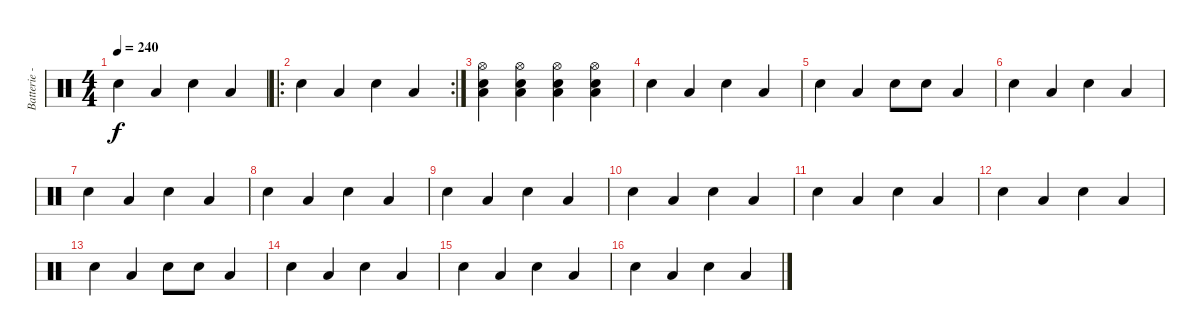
\track ("Batterie - Guillaume" "Batterie -") {instrument percussion}
\staff {score}
\articulation defaults
\ts (4 4)
\tempo 240
\clef neutral
\ks c "Electric Snare (hit)".4{dy f} "Low Tom (hit)".4 "Electric Snare (hit)".4 "Low Tom (hit)".4
|
\ro
\rc 2 "Electric Snare (hit)".4 "Low Tom (hit)".4 "Electric Snare (hit)".4 "Low Tom (hit)".4
|
("Hi-Hat (open)" "Low Tom (hit)" "Electric Snare (hit)").4 ("Hi-Hat (open)" "Low Tom (hit)" "Electric Snare (hit)").4 ("Hi-Hat (open)" "Low Tom (hit)" "Electric Snare (hit)").4 ("Hi-Hat (open)" "Low Tom (hit)" "Electric Snare (hit)").4 |
"Electric Snare (hit)".4 "Low Tom (hit)".4 "Electric Snare (hit)".4 "Low Tom (hit)".4 |
"Electric Snare (hit)".4 "Low Tom (hit)".4 "Electric Snare (hit)".8 "Electric Snare (hit)".8 "Low Tom (hit)".4 |
"Electric Snare (hit)".4 "Low Tom (hit)".4 "Electric Snare (hit)".4 "Low Tom (hit)".4 |
"Electric Snare (hit)".4 "Low Tom (hit)".4 "Electric Snare (hit)".4 "Low Tom (hit)".4 |
"Electric Snare (hit)".4 "Low Tom (hit)".4 "Electric Snare (hit)".4 "Low Tom (hit)".4 |
"Electric Snare (hit)".4 "Low Tom (hit)".4 "Electric Snare (hit)".4 "Low Tom (hit)".4 |
"Electric Snare (hit)".4 "Low Tom (hit)".4 "Electric Snare (hit)".4 "Low Tom (hit)".4 |
"Electric Snare (hit)".4 "Low Tom (hit)".4 "Electric Snare (hit)".4 "Low Tom (hit)".4 |
"Electric Snare (hit)".4 "Low Tom (hit)".4 "Electric Snare (hit)".4 "Low Tom (hit)".4 |
"Electric Snare (hit)".4 "Low Tom (hit)".4 "Electric Snare (hit)".8 "Electric Snare (hit)".8 "Low Tom (hit)".4 |
"Electric Snare (hit)".4 "Low Tom (hit)".4 "Electric Snare (hit)".4 "Low Tom (hit)".4 |
"Electric Snare (hit)".4 "Low Tom (hit)".4 "Electric Snare (hit)".4 "Low Tom (hit)".4 |
"Electric Snare (hit)".4 "Low Tom (hit)".4 "Electric Snare (hit)".4 "Low Tom (hit)".4
